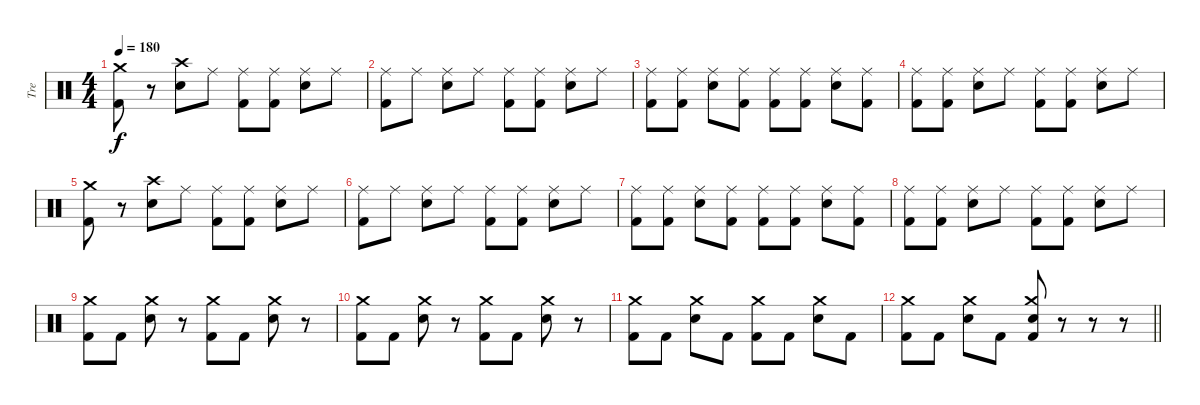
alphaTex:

\track ("Tre" "Tre") {instrument percussion}
\staff {score}
\articulation defaults
\ts (4 4)
\tempo 180
\clef neutral
\ks c
("Kick (hit) 2" "Crash medium (hit)").8{dy f} r.8 ("Snare (hit) 2" "Crash high (hit)").8 "Ride (middle)".8 ("Kick (hit) 2" "Ride (middle)").8 ("Kick (hit) 2" "Ride (middle)").8 ("Snare (hit) 2" "Ride (middle)").8 "Ride (middle)".8 |
("Kick (hit) 2" "Ride (middle)").8 "Ride (middle)".8 ("Snare (hit) 2" "Ride (middle)").8 "Ride (middle)".8 ("Kick (hit) 2" "Ride (middle)").8 ("Kick (hit) 2" "Ride (middle)").8 ("Snare (hit) 2" "Ride (middle)").8 "Ride (middle)".8 |
("Kick (hit) 2" "Ride (middle)").8 ("Kick (hit) 2" "Ride (middle)").8 ("Snare (hit) 2" "Ride (middle)").8 ("Kick (hit) 2" "Ride (middle)").8 ("Kick (hit) 2" "Ride (middle)").8 ("Kick (hit) 2" "Ride (middle)").8 ("Snare (hit) 2" "Ride (middle)").8 ("Kick (hit) 2" "Ride (middle)").8 |
("Kick (hit) 2" "Ride (middle)").8 ("Kick (hit) 2" "Ride (middle)").8 ("Snare (hit) 2" "Ride (middle)").8 "Ride (middle)".8 ("Kick (hit) 2" "Ride (middle)").8 ("Kick (hit) 2" "Ride (middle)").8 ("Snare (hit) 2" "Ride (middle)").8 "Ride (middle)".8 |
("Kick (hit) 2" "Crash medium (hit)").8 r.8 ("Snare (hit) 2" "Crash high (hit)").8 "Ride (middle)".8 ("Kick (hit) 2" "Ride (middle)").8 ("Kick (hit) 2" "Ride (middle)").8 ("Snare (hit) 2" "Ride (middle)").8 "Ride (middle)".8 |
("Kick (hit) 2" "Ride (middle)").8 "Ride (middle)".8 ("Snare (hit) 2" "Ride (middle)").8 "Ride (middle)".8 ("Kick (hit) 2" "Ride (middle)").8 ("Kick (hit) 2" "Ride (middle)").8 ("Snare (hit) 2" "Ride (middle)").8 "Ride (middle)".8 |
("Kick (hit) 2" "Ride (middle)").8 ("Kick (hit) 2" "Ride (middle)").8 ("Snare (hit) 2" "Ride (middle)").8 ("Kick (hit) 2" "Ride (middle)").8 ("Kick (hit) 2" "Ride (middle)").8 ("Kick (hit) 2" "Ride (middle)").8 ("Snare (hit) 2" "Ride (middle)").8 ("Kick (hit) 2" "Ride (middle)").8 |
("Kick (hit) 2" "Ride (middle)").8 ("Kick (hit) 2" "Ride (middle)").8 ("Snare (hit) 2" "Ride (middle)").8 "Ride (middle)".8 ("Kick (hit) 2" "Ride (middle)").8 ("Kick (hit) 2" "Ride (middle)").8 ("Snare (hit) 2" "Ride (middle)").8 "Ride (middle)".8 |
("Kick (hit) 2" "Crash medium (hit)").8 "Kick (hit) 2".8 ("Snare (hit) 2" "Crash medium (hit)").8 r.8 ("Kick (hit) 2" "Crash medium (hit)").8 "Kick (hit) 2".8 ("Snare (hit) 2" "Crash medium (hit)").8 r.8 |
("Kick (hit) 2" "Crash medium (hit)").8 "Kick (hit) 2".8 ("Snare (hit) 2" "Crash medium (hit)").8 r.8 ("Kick (hit) 2" "Crash medium (hit)").8 "Kick (hit) 2".8 ("Snare (hit) 2" "Crash medium (hit)").8 r.8 |
("Kick (hit) 2" "Crash medium (hit)").8 "Kick (hit) 2".8 ("Snare (hit) 2" "Crash medium (hit)").8 "Kick (hit) 2".8 ("Kick (hit) 2" "Crash medium (hit)").8 "Kick (hit) 2".8 ("Snare (hit) 2" "Crash medium (hit)").8 "Kick (hit) 2".8 |
\barLineRight lightlight
("Kick (hit) 2" "Crash medium (hit)").8 "Kick (hit) 2".8 ("Snare (hit) 2" "Crash medium (hit)").8 "Kick (hit) 2".8 ("Kick (hit) 2" "Snare (hit) 2" "Crash medium (hit)").8 r.8 r.8 r.8
